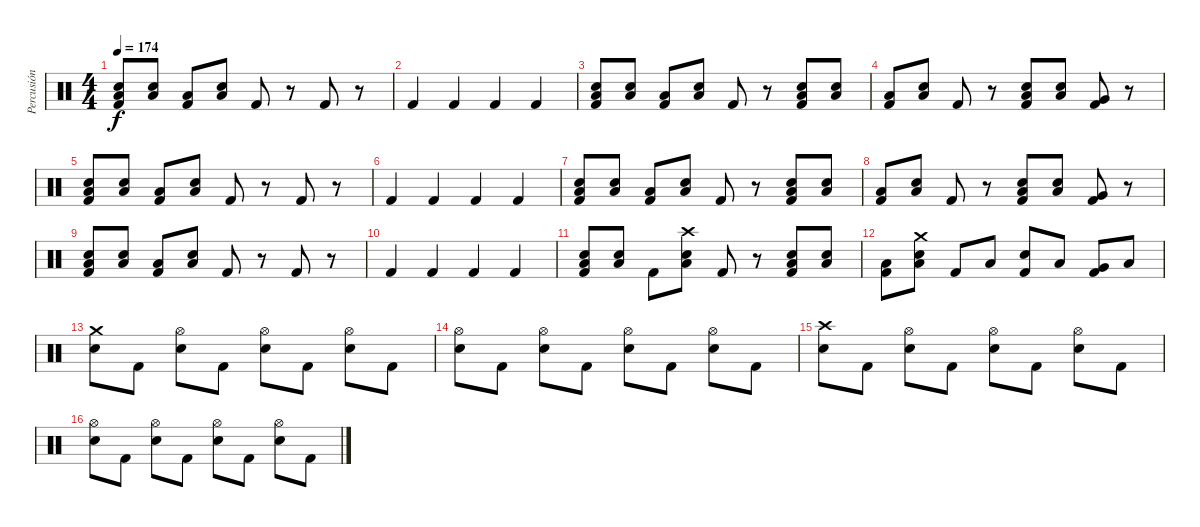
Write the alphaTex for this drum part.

\track ("Percusión" "Percusión") {instrument percussion}
\staff {score}
\articulation defaults
\ts (4 4)
\tempo 174
\clef neutral
\ks c
("Low Tom (hit)" "Electric Snare (hit)" "Kick (hit) 2").8{dy f} ("Low Tom (hit)" "Electric Snare (hit)").8 ("Low Floor Tom (hit)" "Kick (hit) 2").8 ("Low Floor Tom (hit)" "Electric Snare (hit)").8 "Kick (hit) 2".8 r.8 "Kick (hit) 2".8 r.8 |
"Kick (hit) 2".4 "Kick (hit) 2".4 "Kick (hit) 2".4 "Kick (hit) 2".4 |
("Low Tom (hit)" "Electric Snare (hit)" "Kick (hit) 2").8 ("Low Tom (hit)" "Electric Snare (hit)").8 ("Low Floor Tom (hit)" "Kick (hit) 2").8 ("Low Floor Tom (hit)" "Electric Snare (hit)").8 "Kick (hit) 2".8 r.8 ("Low Tom (hit)" "Electric Snare (hit)" "Kick (hit) 2").8 ("Low Tom (hit)" "Electric Snare (hit)").8 |
("Low Floor Tom (hit)" "Kick (hit) 2").8 ("Low Floor Tom (hit)" "Electric Snare (hit)").8 "Kick (hit) 2".8 r.8 ("Low Tom (hit)" "Electric Snare (hit)" "Kick (hit) 2").8 ("Low Tom (hit)" "Electric Snare (hit)").8 ("Very Low Tom (hit)" "Kick (hit) 2").8 r.8 |
("Low Tom (hit)" "Electric Snare (hit)" "Kick (hit) 2").8 ("Low Tom (hit)" "Electric Snare (hit)").8 ("Low Floor Tom (hit)" "Kick (hit) 2").8 ("Low Floor Tom (hit)" "Electric Snare (hit)").8 "Kick (hit) 2".8 r.8 "Kick (hit) 2".8 r.8 |
"Kick (hit) 2".4 "Kick (hit) 2".4 "Kick (hit) 2".4 "Kick (hit) 2".4 |
("Low Tom (hit)" "Electric Snare (hit)" "Kick (hit) 2").8 ("Low Tom (hit)" "Electric Snare (hit)").8 ("Low Floor Tom (hit)" "Kick (hit) 2").8 ("Low Floor Tom (hit)" "Electric Snare (hit)").8 "Kick (hit) 2".8 r.8 ("Low Tom (hit)" "Electric Snare (hit)" "Kick (hit) 2").8 ("Low Tom (hit)" "Electric Snare (hit)").8 |
("Low Floor Tom (hit)" "Kick (hit) 2").8 ("Low Floor Tom (hit)" "Electric Snare (hit)").8 "Kick (hit) 2".8 r.8 ("Low Tom (hit)" "Electric Snare (hit)" "Kick (hit) 2").8 ("Low Tom (hit)" "Electric Snare (hit)").8 ("Very Low Tom (hit)" "Kick (hit) 2").8 r.8 |
("Low Tom (hit)" "Electric Snare (hit)" "Kick (hit) 2").8 ("Low Tom (hit)" "Electric Snare (hit)").8 ("Low Floor Tom (hit)" "Kick (hit) 2").8 ("Low Floor Tom (hit)" "Electric Snare (hit)").8 "Kick (hit) 2".8 r.8 "Kick (hit) 2".8 r.8 |
"Kick (hit) 2".4 "Kick (hit) 2".4 "Kick (hit) 2".4 "Kick (hit) 2".4 |
("Low Tom (hit)" "Electric Snare (hit)" "Kick (hit) 2").8{bu 240} ("Low Tom (hit)" "Electric Snare (hit)").8 "Kick (hit) 2".8 ("Crash high (hit)" "Low Floor Tom (hit)" "Electric Snare (hit)").8 "Kick (hit) 2".8 r.8 ("Low Tom (hit)" "Electric Snare (hit)" "Kick (hit) 2").8{bu 240} ("Low Tom (hit)" "Electric Snare (hit)").8 |
("Low Floor Tom (hit)" "Kick (hit) 2").8 ("Crash medium (hit)" "Low Floor Tom (hit)" "Electric Snare (hit)").8 "Kick (hit) 2".8 "Low Tom (hit)".8 ("Electric Snare (hit)" "Kick (hit) 2").8 "Low Tom (hit)".8 ("Very Low Tom (hit)" "Kick (hit) 2").8 "Low Floor Tom (hit)".8 |
("Crash medium (hit)" "Electric Snare (hit)").8 "Kick (hit) 2".8 ("Hi-Hat (open)" "Electric Snare (hit)").8 "Kick (hit) 2".8 ("Hi-Hat (open)" "Electric Snare (hit)").8 "Kick (hit) 2".8 ("Hi-Hat (open)" "Electric Snare (hit)").8 "Kick (hit) 2".8 |
("Hi-Hat (open)" "Electric Snare (hit)").8 "Kick (hit) 2".8 ("Hi-Hat (open)" "Electric Snare (hit)").8 "Kick (hit) 2".8 ("Hi-Hat (open)" "Electric Snare (hit)").8 "Kick (hit) 2".8 ("Hi-Hat (open)" "Electric Snare (hit)").8 "Kick (hit) 2".8 |
("Crash high (hit)" "Electric Snare (hit)").8 "Kick (hit) 2".8 ("Hi-Hat (open)" "Electric Snare (hit)").8 "Kick (hit) 2".8 ("Hi-Hat (open)" "Electric Snare (hit)").8 "Kick (hit) 2".8 ("Hi-Hat (open)" "Electric Snare (hit)").8 "Kick (hit) 2".8 |
("Hi-Hat (open)" "Electric Snare (hit)").8 "Kick (hit) 2".8 ("Hi-Hat (open)" "Electric Snare (hit)").8 "Kick (hit) 2".8 ("Hi-Hat (open)" "Electric Snare (hit)").8 "Kick (hit) 2".8 ("Hi-Hat (open)" "Electric Snare (hit)").8 "Kick (hit) 2".8
